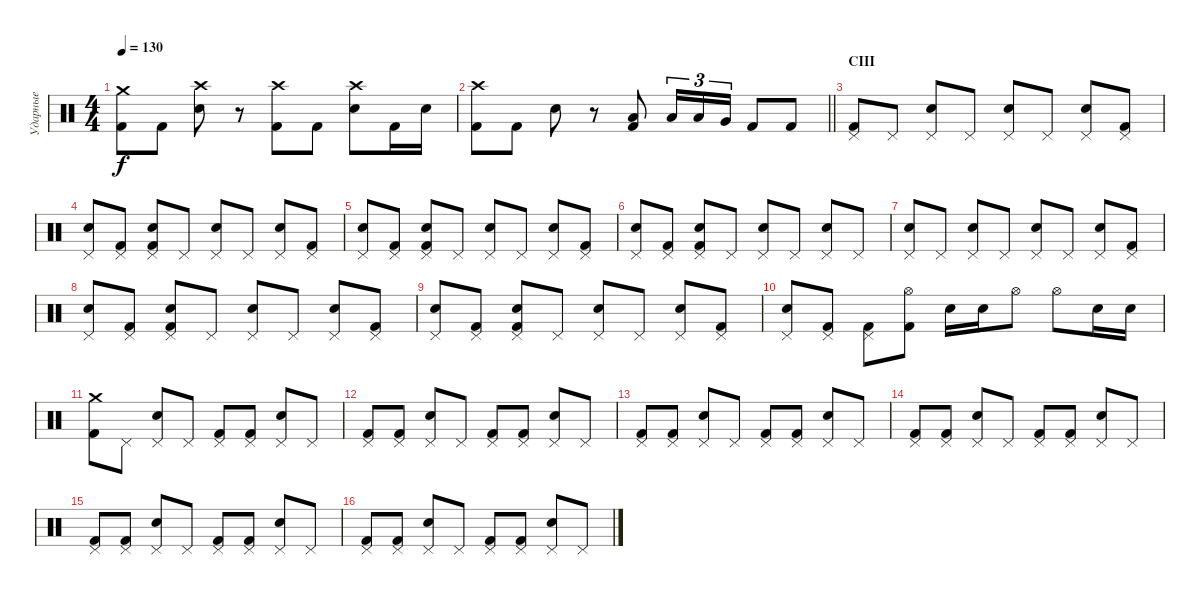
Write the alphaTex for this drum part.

\track ("Ударные" "Ударные") {instrument percussion}
\staff {score}
\articulation defaults
\ts (4 4)
\tempo 130
\clef neutral
\ks c
("Crash medium (hit)" "Kick (hit) 2").8{dy f} "Kick (hit) 2".8 ("Crash high (hit)" "Electric Snare (hit)").8 r.8 ("Crash high (hit)" "Kick (hit) 2").8 "Kick (hit) 2".8 ("Crash high (hit)" "Electric Snare (hit)").8 "Kick (hit) 2".16 "Electric Snare (hit)".16 |
\barLineRight lightlight
("Crash high (hit)" "Kick (hit) 2").8 "Kick (hit) 2".8 "Electric Snare (hit)".8 r.8 ("Low Tom (hit)" "Kick (hit) 2").8 "Low Tom (hit)".16{tu (3 2)} "Low Tom (hit)".16{tu (3 2)} "Very Low Tom (hit)".16{tu (3 2)} "Kick (hit) 2".8 "Kick (hit) 2".8 |
\section ("" "CIII")
("Pedal Hi-Hat (hit)" "Kick (hit) 2").8 "Pedal Hi-Hat (hit)".8 ("Pedal Hi-Hat (hit)" "Electric Snare (hit)").8 "Pedal Hi-Hat (hit)".8 ("Pedal Hi-Hat (hit)" "Electric Snare (hit)").8 "Pedal Hi-Hat (hit)".8 ("Pedal Hi-Hat (hit)" "Electric Snare (hit)").8 ("Pedal Hi-Hat (hit)" "Kick (hit) 2").8 |
("Pedal Hi-Hat (hit)" "Electric Snare (hit)").8 ("Pedal Hi-Hat (hit)" "Kick (hit) 2").8 ("Pedal Hi-Hat (hit)" "Electric Snare (hit)" "Kick (hit) 2").8 "Pedal Hi-Hat (hit)".8 ("Pedal Hi-Hat (hit)" "Electric Snare (hit)").8 "Pedal Hi-Hat (hit)".8 ("Pedal Hi-Hat (hit)" "Electric Snare (hit)").8 ("Pedal Hi-Hat (hit)" "Kick (hit) 2").8 |
("Pedal Hi-Hat (hit)" "Electric Snare (hit)").8 ("Pedal Hi-Hat (hit)" "Kick (hit) 2").8 ("Pedal Hi-Hat (hit)" "Electric Snare (hit)" "Kick (hit) 2").8 "Pedal Hi-Hat (hit)".8 ("Pedal Hi-Hat (hit)" "Electric Snare (hit)").8 "Pedal Hi-Hat (hit)".8 ("Pedal Hi-Hat (hit)" "Electric Snare (hit)").8 ("Pedal Hi-Hat (hit)" "Kick (hit) 2").8 |
("Pedal Hi-Hat (hit)" "Electric Snare (hit)").8 ("Pedal Hi-Hat (hit)" "Kick (hit) 2").8 ("Pedal Hi-Hat (hit)" "Electric Snare (hit)" "Kick (hit) 2").8 "Pedal Hi-Hat (hit)".8 ("Pedal Hi-Hat (hit)" "Electric Snare (hit)").8 "Pedal Hi-Hat (hit)".8 ("Pedal Hi-Hat (hit)" "Electric Snare (hit)").8 "Pedal Hi-Hat (hit)".8 |
("Pedal Hi-Hat (hit)" "Electric Snare (hit)").8 "Pedal Hi-Hat (hit)".8 ("Pedal Hi-Hat (hit)" "Electric Snare (hit)").8 "Pedal Hi-Hat (hit)".8 ("Pedal Hi-Hat (hit)" "Electric Snare (hit)").8 "Pedal Hi-Hat (hit)".8 ("Pedal Hi-Hat (hit)" "Electric Snare (hit)").8 ("Pedal Hi-Hat (hit)" "Kick (hit) 2").8 |
("Pedal Hi-Hat (hit)" "Electric Snare (hit)").8 ("Pedal Hi-Hat (hit)" "Kick (hit) 2").8 ("Pedal Hi-Hat (hit)" "Electric Snare (hit)" "Kick (hit) 2").8 "Pedal Hi-Hat (hit)".8 ("Pedal Hi-Hat (hit)" "Electric Snare (hit)").8 "Pedal Hi-Hat (hit)".8 ("Pedal Hi-Hat (hit)" "Electric Snare (hit)").8 ("Pedal Hi-Hat (hit)" "Kick (hit) 2").8 |
("Pedal Hi-Hat (hit)" "Electric Snare (hit)").8 ("Pedal Hi-Hat (hit)" "Kick (hit) 2").8 ("Pedal Hi-Hat (hit)" "Electric Snare (hit)" "Kick (hit) 2").8 "Pedal Hi-Hat (hit)".8 ("Pedal Hi-Hat (hit)" "Electric Snare (hit)").8 "Pedal Hi-Hat (hit)".8 ("Pedal Hi-Hat (hit)" "Electric Snare (hit)").8 ("Pedal Hi-Hat (hit)" "Kick (hit) 2").8 |
("Pedal Hi-Hat (hit)" "Electric Snare (hit)").8 ("Pedal Hi-Hat (hit)" "Kick (hit) 2").8 ("Pedal Hi-Hat (hit)" "Kick (hit) 2").8 ("Hi-Hat (open)" "Kick (hit) 2").8 "Electric Snare (hit)".16 "Electric Snare (hit)".16 "Hi-Hat (open)".8 "Hi-Hat (open)".8 "Electric Snare (hit)".16 "Electric Snare (hit)".16 |
("Crash medium (hit)" "Kick (hit) 2").8 "Pedal Hi-Hat (hit)".8 ("Pedal Hi-Hat (hit)" "Electric Snare (hit)").8 "Pedal Hi-Hat (hit)".8 ("Pedal Hi-Hat (hit)" "Kick (hit) 2").8 ("Pedal Hi-Hat (hit)" "Kick (hit) 2").8 ("Pedal Hi-Hat (hit)" "Electric Snare (hit)").8 "Pedal Hi-Hat (hit)".8 |
("Pedal Hi-Hat (hit)" "Kick (hit) 2").8 ("Pedal Hi-Hat (hit)" "Kick (hit) 2").8 ("Pedal Hi-Hat (hit)" "Electric Snare (hit)").8 "Pedal Hi-Hat (hit)".8 ("Pedal Hi-Hat (hit)" "Kick (hit) 2").8 ("Pedal Hi-Hat (hit)" "Kick (hit) 2").8 ("Pedal Hi-Hat (hit)" "Electric Snare (hit)").8 "Pedal Hi-Hat (hit)".8 |
("Pedal Hi-Hat (hit)" "Kick (hit) 2").8 ("Pedal Hi-Hat (hit)" "Kick (hit) 2").8 ("Pedal Hi-Hat (hit)" "Electric Snare (hit)").8 "Pedal Hi-Hat (hit)".8 ("Pedal Hi-Hat (hit)" "Kick (hit) 2").8 ("Pedal Hi-Hat (hit)" "Kick (hit) 2").8 ("Pedal Hi-Hat (hit)" "Electric Snare (hit)").8 "Pedal Hi-Hat (hit)".8 |
("Pedal Hi-Hat (hit)" "Kick (hit) 2").8 ("Pedal Hi-Hat (hit)" "Kick (hit) 2").8 ("Pedal Hi-Hat (hit)" "Electric Snare (hit)").8 "Pedal Hi-Hat (hit)".8 ("Pedal Hi-Hat (hit)" "Kick (hit) 2").8 ("Pedal Hi-Hat (hit)" "Kick (hit) 2").8 ("Pedal Hi-Hat (hit)" "Electric Snare (hit)").8 "Pedal Hi-Hat (hit)".8 |
("Pedal Hi-Hat (hit)" "Kick (hit) 2").8 ("Pedal Hi-Hat (hit)" "Kick (hit) 2").8 ("Pedal Hi-Hat (hit)" "Electric Snare (hit)").8 "Pedal Hi-Hat (hit)".8 ("Pedal Hi-Hat (hit)" "Kick (hit) 2").8 ("Pedal Hi-Hat (hit)" "Kick (hit) 2").8 ("Pedal Hi-Hat (hit)" "Electric Snare (hit)").8 "Pedal Hi-Hat (hit)".8 |
("Pedal Hi-Hat (hit)" "Kick (hit) 2").8 ("Pedal Hi-Hat (hit)" "Kick (hit) 2").8 ("Pedal Hi-Hat (hit)" "Electric Snare (hit)").8 "Pedal Hi-Hat (hit)".8 ("Pedal Hi-Hat (hit)" "Kick (hit) 2").8 ("Pedal Hi-Hat (hit)" "Kick (hit) 2").8 ("Pedal Hi-Hat (hit)" "Electric Snare (hit)").8 "Pedal Hi-Hat (hit)".8
